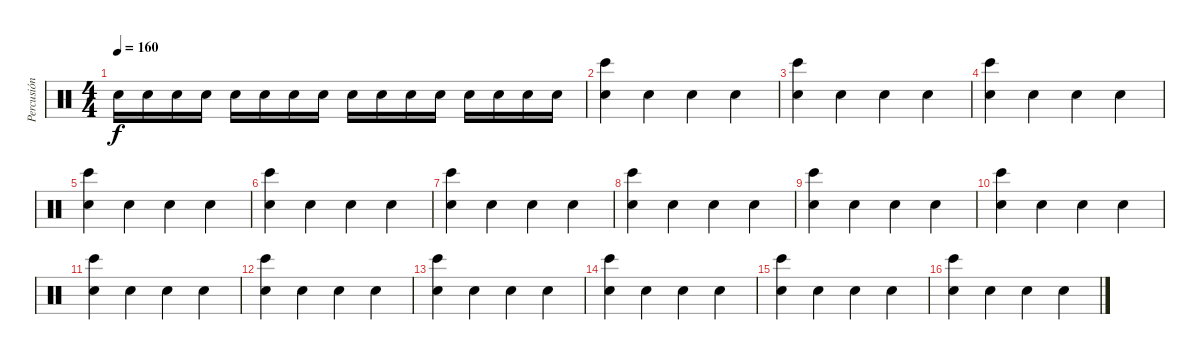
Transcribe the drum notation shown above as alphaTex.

\track ("Percusión" "Percusión") {instrument percussion}
\staff {score}
\articulation defaults
\ts (4 4)
\tempo 160
\clef neutral
\ks c "Electric Snare (hit)".16{dy f} "Electric Snare (hit)".16 "Electric Snare (hit)".16 "Electric Snare (hit)".16 "Electric Snare (hit)".16 "Electric Snare (hit)".16 "Electric Snare (hit)".16 "Electric Snare (hit)".16 "Electric Snare (hit)".16 "Electric Snare (hit)".16 "Electric Snare (hit)".16 "Electric Snare (hit)".16 "Electric Snare (hit)".16 "Electric Snare (hit)".16 "Electric Snare (hit)".16 "Electric Snare (hit)".16
|
("Electric Snare (hit)" "Bongo High (hit)").4 "Electric Snare (hit)".4 "Electric Snare (hit)".4 "Electric Snare (hit)".4 |
("Electric Snare (hit)" "Bongo High (hit)").4 "Electric Snare (hit)".4 "Electric Snare (hit)".4 "Electric Snare (hit)".4 |
("Electric Snare (hit)" "Bongo High (hit)").4 "Electric Snare (hit)".4 "Electric Snare (hit)".4 "Electric Snare (hit)".4 |
("Electric Snare (hit)" "Bongo High (hit)").4 "Electric Snare (hit)".4 "Electric Snare (hit)".4 "Electric Snare (hit)".4 |
("Electric Snare (hit)" "Bongo High (hit)").4 "Electric Snare (hit)".4 "Electric Snare (hit)".4 "Electric Snare (hit)".4 |
("Electric Snare (hit)" "Bongo High (hit)").4 "Electric Snare (hit)".4 "Electric Snare (hit)".4 "Electric Snare (hit)".4 |
("Electric Snare (hit)" "Bongo High (hit)").4 "Electric Snare (hit)".4 "Electric Snare (hit)".4 "Electric Snare (hit)".4 |
("Electric Snare (hit)" "Bongo High (hit)").4 "Electric Snare (hit)".4 "Electric Snare (hit)".4 "Electric Snare (hit)".4 |
("Electric Snare (hit)" "Bongo High (hit)").4 "Electric Snare (hit)".4 "Electric Snare (hit)".4 "Electric Snare (hit)".4 |
("Electric Snare (hit)" "Bongo High (hit)").4 "Electric Snare (hit)".4 "Electric Snare (hit)".4 "Electric Snare (hit)".4 |
("Electric Snare (hit)" "Bongo High (hit)").4 "Electric Snare (hit)".4 "Electric Snare (hit)".4 "Electric Snare (hit)".4 |
("Electric Snare (hit)" "Bongo High (hit)").4 "Electric Snare (hit)".4 "Electric Snare (hit)".4 "Electric Snare (hit)".4 |
("Electric Snare (hit)" "Bongo High (hit)").4 "Electric Snare (hit)".4 "Electric Snare (hit)".4 "Electric Snare (hit)".4 |
("Electric Snare (hit)" "Bongo High (hit)").4 "Electric Snare (hit)".4 "Electric Snare (hit)".4 "Electric Snare (hit)".4 |
("Electric Snare (hit)" "Bongo High (hit)").4 "Electric Snare (hit)".4 "Electric Snare (hit)".4 "Electric Snare (hit)".4
